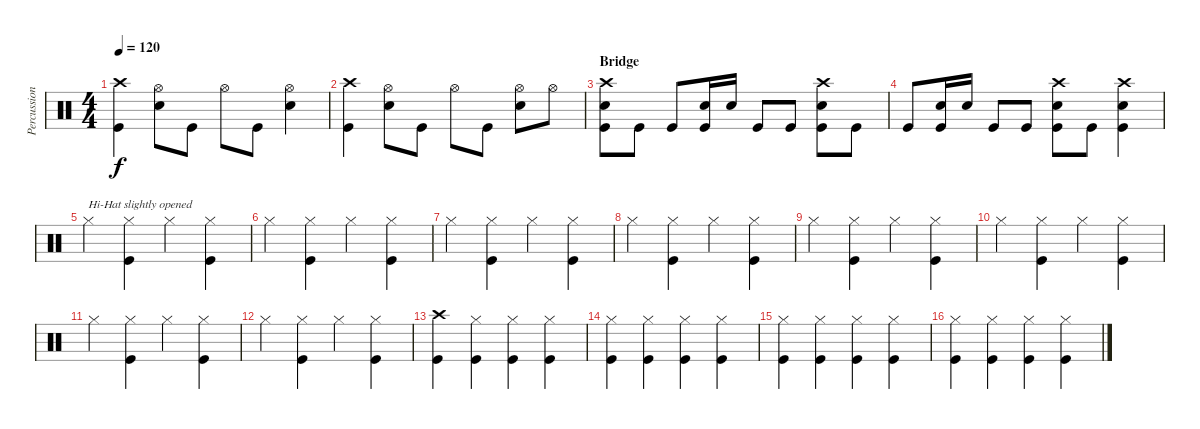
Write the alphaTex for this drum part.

\track ("Percussion" "Percussion") {instrument percussion}
\staff {score}
\articulation defaults
\ts (4 4)
\tempo 120
\clef neutral
\ks c
("Crash high (hit)" "Kick (hit)").4{dy f} ("Hi-Hat (open)" "Snare (hit) 2").8 "Kick (hit)".8 "Hi-Hat (open)".8 "Kick (hit)".8 ("Hi-Hat (open)" "Snare (hit) 2").4 |
("Crash high (hit)" "Kick (hit)").4 ("Hi-Hat (open)" "Snare (hit) 2").8 "Kick (hit)".8 "Hi-Hat (open)".8 "Kick (hit)".8 ("Hi-Hat (open)" "Snare (hit) 2").8 "Hi-Hat (open)".8 |
\section ("" "Bridge")
("Crash high (hit)" "Snare (hit) 2" "Kick (hit)").8 "Kick (hit)".8 "Kick (hit)".8 ("Snare (hit) 2" "Kick (hit)").16 "Snare (hit) 2".16 "Kick (hit)".8 "Kick (hit)".8 ("Crash high (hit)" "Snare (hit) 2" "Kick (hit)").8 "Kick (hit)".8 |
"Kick (hit)".8 ("Snare (hit) 2" "Kick (hit)").16 "Snare (hit) 2".16 "Kick (hit)".8 "Kick (hit)".8 ("Crash high (hit)" "Snare (hit) 2" "Kick (hit)").8 "Kick (hit)".8 ("Crash high (hit)" "Snare (hit) 2" "Kick (hit)").4 |
"Hi-Hat (closed)".4{txt "Hi-Hat slightly opened"} ("Hi-Hat (closed)" "Kick (hit)").4 "Hi-Hat (closed)".4 ("Hi-Hat (closed)" "Kick (hit)").4 |
"Hi-Hat (closed)".4 ("Hi-Hat (closed)" "Kick (hit)").4 "Hi-Hat (closed)".4 ("Hi-Hat (closed)" "Kick (hit)").4 |
"Hi-Hat (closed)".4 ("Hi-Hat (closed)" "Kick (hit)").4 "Hi-Hat (closed)".4 ("Hi-Hat (closed)" "Kick (hit)").4 |
"Hi-Hat (closed)".4 ("Hi-Hat (closed)" "Kick (hit)").4 "Hi-Hat (closed)".4 ("Hi-Hat (closed)" "Kick (hit)").4 |
"Hi-Hat (closed)".4 ("Hi-Hat (closed)" "Kick (hit)").4 "Hi-Hat (closed)".4 ("Hi-Hat (closed)" "Kick (hit)").4 |
"Hi-Hat (closed)".4 ("Hi-Hat (closed)" "Kick (hit)").4 "Hi-Hat (closed)".4 ("Hi-Hat (closed)" "Kick (hit)").4 |
"Hi-Hat (closed)".4 ("Hi-Hat (closed)" "Kick (hit)").4 "Hi-Hat (closed)".4 ("Hi-Hat (closed)" "Kick (hit)").4 |
"Hi-Hat (closed)".4 ("Hi-Hat (closed)" "Kick (hit)").4 "Hi-Hat (closed)".4 ("Hi-Hat (closed)" "Kick (hit)").4 |
("Crash high (hit)" "Kick (hit)").4 ("Hi-Hat (closed)" "Kick (hit)").4 ("Hi-Hat (closed)" "Kick (hit)").4 ("Hi-Hat (closed)" "Kick (hit)").4 |
("Hi-Hat (closed)" "Kick (hit)").4 ("Hi-Hat (closed)" "Kick (hit)").4 ("Hi-Hat (closed)" "Kick (hit)").4 ("Hi-Hat (closed)" "Kick (hit)").4 |
("Hi-Hat (closed)" "Kick (hit)").4 ("Hi-Hat (closed)" "Kick (hit)").4 ("Hi-Hat (closed)" "Kick (hit)").4 ("Hi-Hat (closed)" "Kick (hit)").4 |
("Hi-Hat (closed)" "Kick (hit)").4 ("Hi-Hat (closed)" "Kick (hit)").4 ("Hi-Hat (closed)" "Kick (hit)").4 ("Hi-Hat (closed)" "Kick (hit)").4
